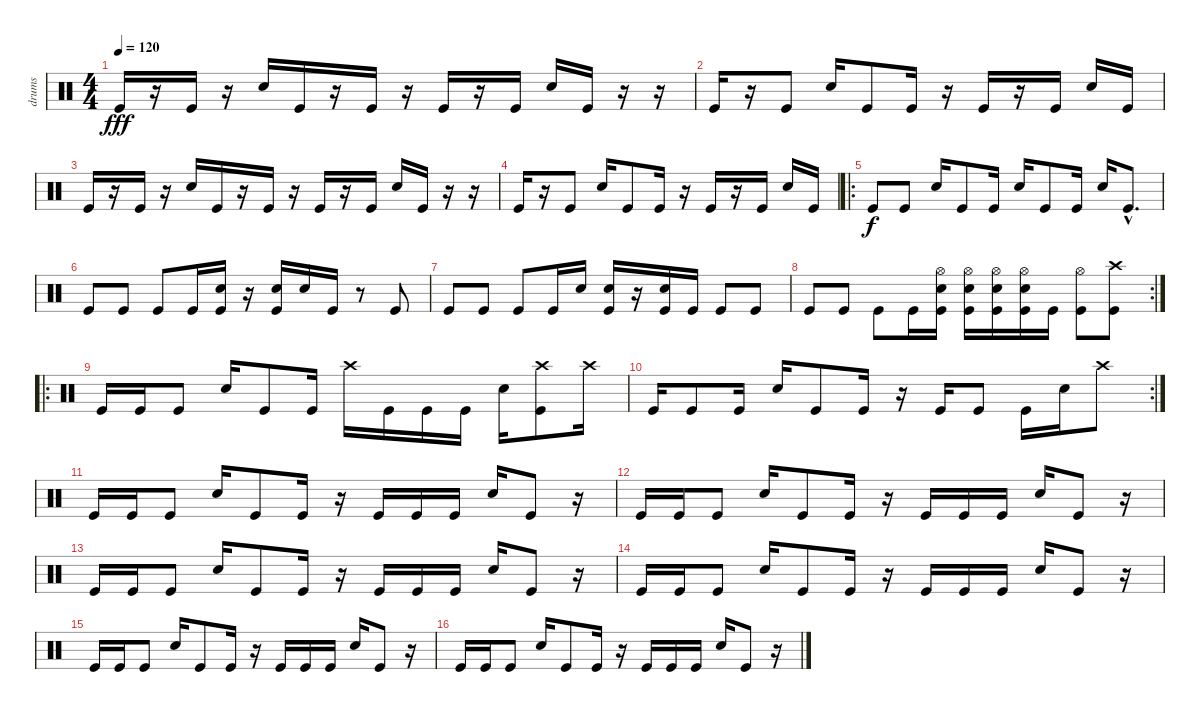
\track ("drums" "drums") {instrument percussion}
\staff {score}
\articulation defaults
\ts (4 4)
\tempo 120
\clef neutral
\ks c "Kick (hit)".16{dy fff}
r.16 "Kick (hit)".16 r.16 "Electric Snare (hit)".16 "Kick (hit)".16 r.16 "Kick (hit)".16 r.16 "Kick (hit)".16 r.16 "Kick (hit)".16 "Electric Snare (hit)".16 "Kick (hit)".16 r.16 r.16 |
"Kick (hit)".16 r.16 "Kick (hit)".8 "Electric Snare (hit)".16 "Kick (hit)".8 "Kick (hit)".16 r.16 "Kick (hit)".16 r.16 "Kick (hit)".16 "Electric Snare (hit)".16 "Kick (hit)".16 |
"Kick (hit)".16 r.16 "Kick (hit)".16 r.16 "Electric Snare (hit)".16 "Kick (hit)".16 r.16 "Kick (hit)".16 r.16 "Kick (hit)".16 r.16 "Kick (hit)".16 "Electric Snare (hit)".16 "Kick (hit)".16 r.16 r.16 |
"Kick (hit)".16 r.16 "Kick (hit)".8 "Electric Snare (hit)".16 "Kick (hit)".8 "Kick (hit)".16 r.16 "Kick (hit)".16 r.16 "Kick (hit)".16 "Electric Snare (hit)".16 "Kick (hit)".16 |
\ro "Kick (hit)".8{dy f} "Kick (hit)".8 "Electric Snare (hit)".16 "Kick (hit)".8 "Kick (hit)".16 "Electric Snare (hit)".16 "Kick (hit)".8 "Kick (hit)".16 "Electric Snare (hit)".16 "Kick (hit)"{hac}.8{d}
|
"Kick (hit)".8 "Kick (hit)".8 "Kick (hit)".8 "Kick (hit)".16 ("Electric Snare (hit)" "Kick (hit)").16 r.16 ("Electric Snare (hit)" "Kick (hit)").16 "Electric Snare (hit)".16 "Kick (hit)".16 r.8 "Kick (hit)".8 |
"Kick (hit)".8 "Kick (hit)".8 "Kick (hit)".8 "Kick (hit)".16 "Electric Snare (hit)".16 ("Electric Snare (hit)" "Kick (hit)").16 r.16 ("Electric Snare (hit)" "Kick (hit)").16 "Kick (hit)".16 "Kick (hit)".8 "Kick (hit)".8 |
\rc 2 "Kick (hit)".8 "Kick (hit)".8 "Kick (hit)".8 "Kick (hit)".16
("Hi-Hat (open)" "Electric Snare (hit)" "Kick (hit)").16 ("Hi-Hat (open)" "Electric Snare (hit)" "Kick (hit)").16 ("Hi-Hat (open)" "Electric Snare (hit)" "Kick (hit)").16 ("Hi-Hat (open)" "Electric Snare (hit)" "Kick (hit)").16 "Kick (hit)".16 ("Hi-Hat (open)" "Kick (hit)").8 ("Crash high (hit)" "Kick (hit)").8 |
\ro "Kick (hit)".16 "Kick (hit)".16 "Kick (hit)".8 "Electric Snare (hit)".16 "Kick (hit)".8 "Kick (hit)".16 "Crash high (hit)".16 "Kick (hit)".16 "Kick (hit)".16 "Kick (hit)".16 "Electric Snare (hit)".16
("Crash high (hit)" "Kick (hit)").8 "Crash high (hit)".16 |
\rc 2 "Kick (hit)".16 "Kick (hit)".8 "Kick (hit)".16 "Electric Snare (hit)".16 "Kick (hit)".8 "Kick (hit)".16
r.16 "Kick (hit)".16 "Kick (hit)".8 "Kick (hit)".16 "Electric Snare (hit)".16 "Crash high (hit)".8 |
"Kick (hit)".16 "Kick (hit)".16 "Kick (hit)".8 "Electric Snare (hit)".16 "Kick (hit)".8 "Kick (hit)".16 r.16 "Kick (hit)".16 "Kick (hit)".16 "Kick (hit)".16 "Electric Snare (hit)".16 "Kick (hit)".8 r.16 |
"Kick (hit)".16 "Kick (hit)".16 "Kick (hit)".8 "Electric Snare (hit)".16 "Kick (hit)".8 "Kick (hit)".16 r.16 "Kick (hit)".16 "Kick (hit)".16 "Kick (hit)".16 "Electric Snare (hit)".16 "Kick (hit)".8 r.16 |
"Kick (hit)".16 "Kick (hit)".16 "Kick (hit)".8 "Electric Snare (hit)".16 "Kick (hit)".8 "Kick (hit)".16 r.16 "Kick (hit)".16 "Kick (hit)".16 "Kick (hit)".16 "Electric Snare (hit)".16 "Kick (hit)".8 r.16 |
"Kick (hit)".16 "Kick (hit)".16 "Kick (hit)".8 "Electric Snare (hit)".16 "Kick (hit)".8 "Kick (hit)".16 r.16 "Kick (hit)".16 "Kick (hit)".16 "Kick (hit)".16 "Electric Snare (hit)".16 "Kick (hit)".8 r.16 |
"Kick (hit)".16 "Kick (hit)".16 "Kick (hit)".8 "Electric Snare (hit)".16 "Kick (hit)".8 "Kick (hit)".16 r.16 "Kick (hit)".16 "Kick (hit)".16 "Kick (hit)".16 "Electric Snare (hit)".16 "Kick (hit)".8 r.16 |
"Kick (hit)".16 "Kick (hit)".16 "Kick (hit)".8 "Electric Snare (hit)".16 "Kick (hit)".8 "Kick (hit)".16 r.16 "Kick (hit)".16 "Kick (hit)".16 "Kick (hit)".16 "Electric Snare (hit)".16 "Kick (hit)".8 r.16
